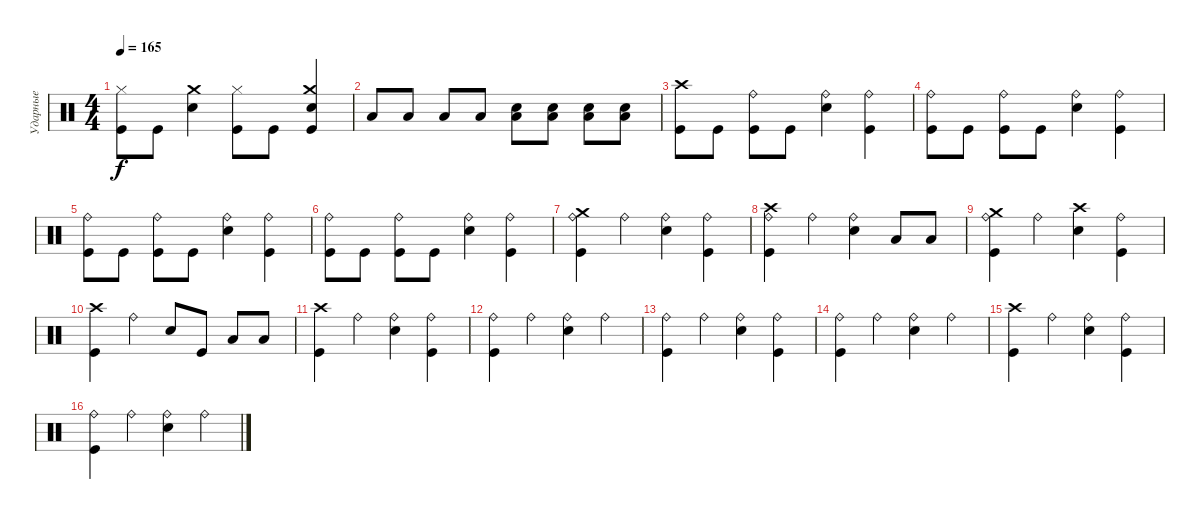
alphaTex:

\track ("Ударные" "Ударные") {instrument percussion}
\staff {score}
\articulation defaults
\ts (4 4)
\tempo 165
\clef neutral
\ks c
("Hi-Hat (closed)" "Kick (hit)").8{dy f} "Kick (hit)".8 ("Crash medium (hit)" "Electric Snare (hit)").4 ("Hi-Hat (closed)" "Kick (hit)").8 "Kick (hit)".8 ("Crash medium (hit)" "Electric Snare (hit)" "Kick (hit)").4 |
"Low Tom (hit)".8 "Low Tom (hit)".8 "Low Tom (hit)".8 "Low Tom (hit)".8 ("Electric Snare (hit)" "Low Tom (hit)").8 ("Electric Snare (hit)" "Low Tom (hit)").8 ("Electric Snare (hit)" "Low Tom (hit)").8 ("Electric Snare (hit)" "Low Tom (hit)").8 |
("Crash high (hit)" "Kick (hit)").8 "Kick (hit)".8 ("Ride (bell)" "Kick (hit)").8 "Kick (hit)".8 ("Ride (bell)" "Electric Snare (hit)").4 ("Ride (bell)" "Kick (hit)").4 |
("Ride (bell)" "Kick (hit)").8 "Kick (hit)".8 ("Ride (bell)" "Kick (hit)").8 "Kick (hit)".8 ("Ride (bell)" "Electric Snare (hit)").4 ("Ride (bell)" "Kick (hit)").4 |
("Ride (bell)" "Kick (hit)").8 "Kick (hit)".8 ("Ride (bell)" "Kick (hit)").8 "Kick (hit)".8 ("Ride (bell)" "Electric Snare (hit)").4 ("Ride (bell)" "Kick (hit)").4 |
("Ride (bell)" "Kick (hit)").8 "Kick (hit)".8 ("Ride (bell)" "Kick (hit)").8 "Kick (hit)".8 ("Ride (bell)" "Electric Snare (hit)").4 ("Ride (bell)" "Kick (hit)").4 |
("Crash medium (hit)" "Ride (bell)" "Kick (hit)").4 "Ride (bell)".4 ("Ride (bell)" "Electric Snare (hit)").4 ("Ride (bell)" "Kick (hit)").4 |
("Crash high (hit)" "Ride (bell)" "Kick (hit)").4 "Ride (bell)".4 ("Ride (bell)" "Electric Snare (hit)").4 "Low Tom (hit)".8 "Low Tom (hit)".8 |
("Crash medium (hit)" "Ride (bell)" "Kick (hit)").4 "Ride (bell)".4 ("Crash high (hit)" "Electric Snare (hit)").4 ("Ride (bell)" "Kick (hit)").4 |
("Crash high (hit)" "Kick (hit)").4 "Ride (bell)".4 "Electric Snare (hit)".8 "Kick (hit)".8 "Low Tom (hit)".8 "Low Tom (hit)".8 |
("Crash high (hit)" "Kick (hit)").4 "Ride (bell)".4 ("Ride (bell)" "Electric Snare (hit)").4 ("Ride (bell)" "Kick (hit)").4 |
("Ride (bell)" "Kick (hit)").4 "Ride (bell)".4 ("Ride (bell)" "Electric Snare (hit)").4 "Ride (bell)".4 |
("Ride (bell)" "Kick (hit)").4 "Ride (bell)".4 ("Ride (bell)" "Electric Snare (hit)").4 ("Ride (bell)" "Kick (hit)").4 |
("Ride (bell)" "Kick (hit)").4 "Ride (bell)".4 ("Ride (bell)" "Electric Snare (hit)").4 "Ride (bell)".4 |
("Crash high (hit)" "Kick (hit)").4 "Ride (bell)".4 ("Ride (bell)" "Electric Snare (hit)").4 ("Ride (bell)" "Kick (hit)").4 |
("Ride (bell)" "Kick (hit)").4 "Ride (bell)".4 ("Ride (bell)" "Electric Snare (hit)").4 "Ride (bell)".4
